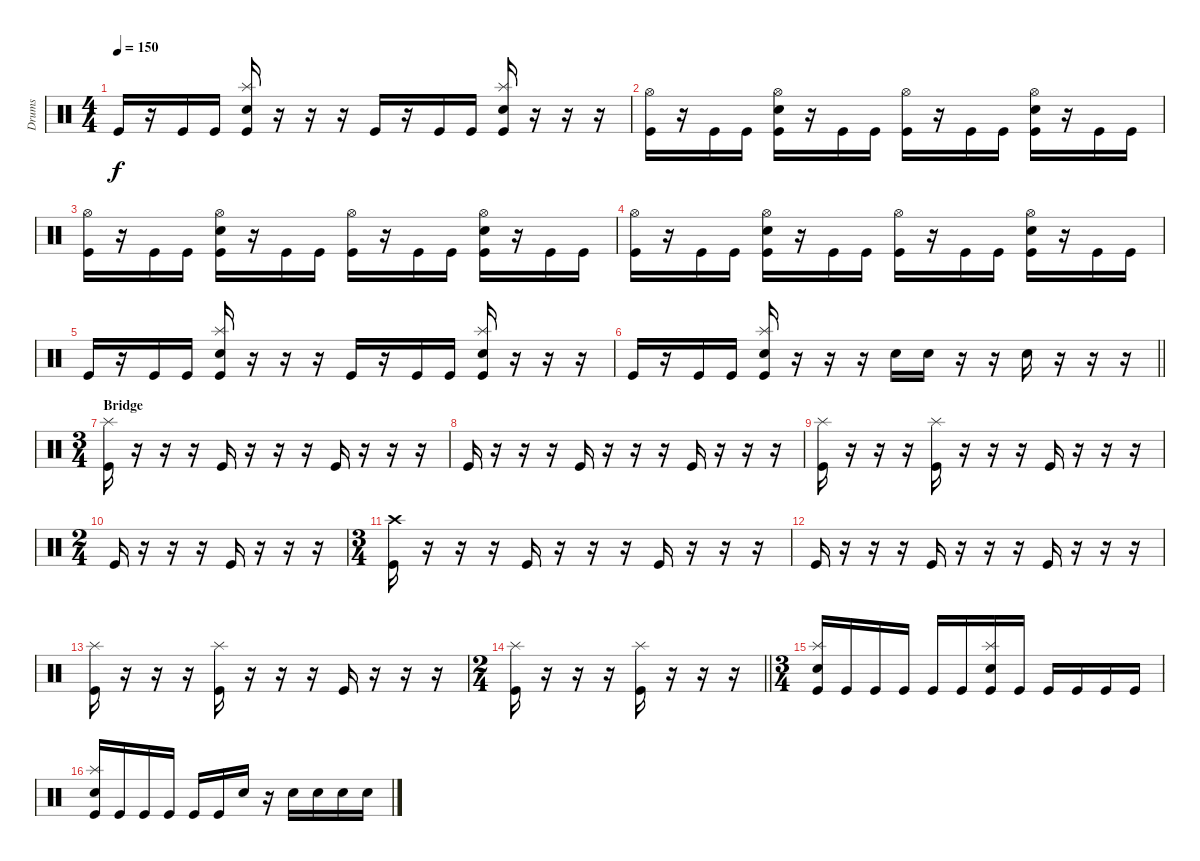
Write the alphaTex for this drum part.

\track ("Drums" "Drums") {instrument percussion}
\staff
\articulation defaults
\ts (4 4)
\tempo 150
\clef neutral
\ks c "Kick (hit)".16{dy f}
r.16 "Kick (hit)".16 "Kick (hit)".16 ("Splash (hit)" "Snare (hit) 2" "Kick (hit)").16 r.16 r.16 r.16 "Kick (hit)".16 r.16 "Kick (hit)".16 "Kick (hit)".16 ("Splash (hit)" "Snare (hit) 2" "Kick (hit)").16 r.16 r.16 r.16 |
("Hi-Hat (open)" "Kick (hit)").16 r.16 "Kick (hit)".16 "Kick (hit)".16 ("Hi-Hat (open)" "Snare (hit) 2" "Kick (hit)").16 r.16 "Kick (hit)".16 "Kick (hit)".16 ("Hi-Hat (open)" "Kick (hit)").16 r.16 "Kick (hit)".16 "Kick (hit)".16 ("Hi-Hat (open)" "Snare (hit) 2" "Kick (hit)").16 r.16 "Kick (hit)".16 "Kick (hit)".16 |
("Hi-Hat (open)" "Kick (hit)").16 r.16 "Kick (hit)".16 "Kick (hit)".16 ("Hi-Hat (open)" "Snare (hit) 2" "Kick (hit)").16 r.16 "Kick (hit)".16 "Kick (hit)".16 ("Hi-Hat (open)" "Kick (hit)").16 r.16 "Kick (hit)".16 "Kick (hit)".16 ("Hi-Hat (open)" "Snare (hit) 2" "Kick (hit)").16 r.16 "Kick (hit)".16 "Kick (hit)".16 |
("Hi-Hat (open)" "Kick (hit)").16 r.16 "Kick (hit)".16 "Kick (hit)".16 ("Hi-Hat (open)" "Snare (hit) 2" "Kick (hit)").16 r.16 "Kick (hit)".16 "Kick (hit)".16 ("Hi-Hat (open)" "Kick (hit)").16 r.16 "Kick (hit)".16 "Kick (hit)".16 ("Hi-Hat (open)" "Snare (hit) 2" "Kick (hit)").16 r.16 "Kick (hit)".16 "Kick (hit)".16 |
"Kick (hit)".16 r.16 "Kick (hit)".16 "Kick (hit)".16 ("Splash (hit)" "Snare (hit) 2" "Kick (hit)").16 r.16 r.16 r.16 "Kick (hit)".16 r.16 "Kick (hit)".16 "Kick (hit)".16 ("Splash (hit)" "Snare (hit) 2" "Kick (hit)").16 r.16 r.16 r.16 |
\barLineRight lightlight "Kick (hit)".16
r.16 "Kick (hit)".16 "Kick (hit)".16 ("Splash (hit)" "Snare (hit) 2" "Kick (hit)").16 r.16 r.16 r.16 "Snare (hit) 2".16 "Snare (hit) 2".16 r.16 r.16 "Snare (hit) 2".16 r.16 r.16 r.16 |
\ts (3 4)
\section ("" "Bridge")
("Splash (hit)" "Kick (hit)").16 r.16 r.16 r.16 "Kick (hit)".16 r.16 r.16 r.16 "Kick (hit)".16 r.16 r.16 r.16 |
"Kick (hit)".16 r.16 r.16 r.16 "Kick (hit)".16 r.16 r.16 r.16 "Kick (hit)".16 r.16 r.16 r.16 |
("Splash (hit)" "Kick (hit)").16 r.16 r.16 r.16 ("Splash (hit)" "Kick (hit)").16 r.16 r.16 r.16 "Kick (hit)".16 r.16 r.16 r.16 |
\ts (2 4)
"Kick (hit)".16 r.16 r.16 r.16 "Kick (hit)".16 r.16 r.16 r.16 |
\ts (3 4)
("Crash high (hit)" "Kick (hit)").16 r.16 r.16 r.16 "Kick (hit)".16 r.16 r.16 r.16 "Kick (hit)".16 r.16 r.16 r.16 |
"Kick (hit)".16 r.16 r.16 r.16 "Kick (hit)".16 r.16 r.16 r.16 "Kick (hit)".16 r.16 r.16 r.16 |
("Splash (hit)" "Kick (hit)").16 r.16 r.16 r.16 ("Splash (hit)" "Kick (hit)").16 r.16 r.16 r.16 "Kick (hit)".16 r.16 r.16 r.16 |
\ts (2 4)
\barLineRight lightlight
("Splash (hit)" "Kick (hit)").16 r.16 r.16 r.16 ("Splash (hit)" "Kick (hit)").16 r.16 r.16 r.16 |
\ts (3 4)
\section ("" "")
("Splash (hit)" "Snare (hit) 2" "Kick (hit)").16 "Kick (hit)".16 "Kick (hit)".16 "Kick (hit)".16 "Kick (hit)".16 "Kick (hit)".16 ("Splash (hit)" "Snare (hit) 2" "Kick (hit)").16 "Kick (hit)".16 "Kick (hit)".16 "Kick (hit)".16 "Kick (hit)".16 "Kick (hit)".16 |
("Splash (hit)" "Snare (hit) 2" "Kick (hit)").16 "Kick (hit)".16 "Kick (hit)".16 "Kick (hit)".16 "Kick (hit)".16 "Kick (hit)".16 "Snare (hit) 2".16 r.16 "Snare (hit) 2".16 "Snare (hit) 2".16 "Snare (hit) 2".16 "Snare (hit) 2".16
